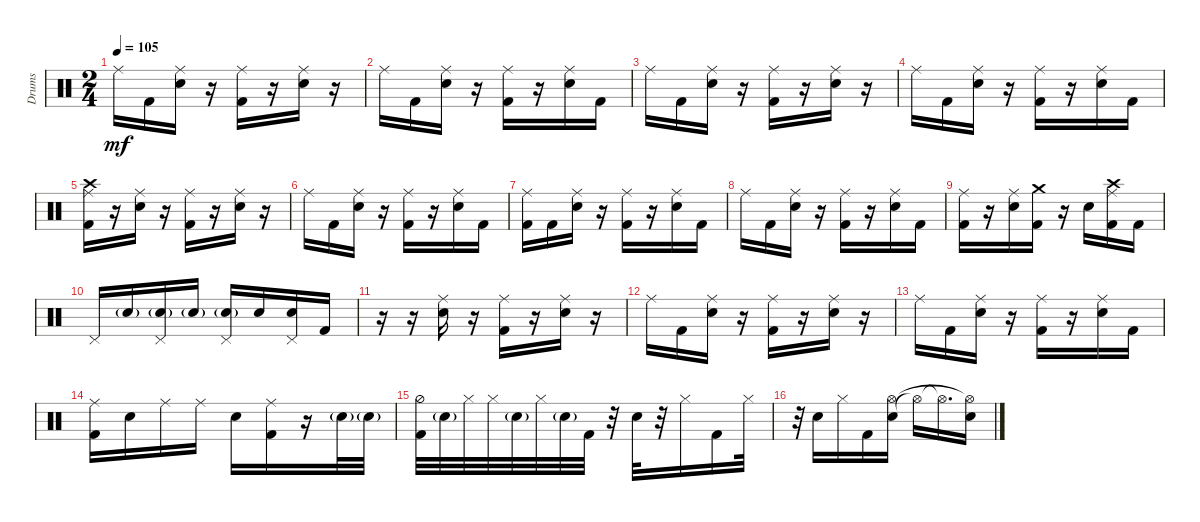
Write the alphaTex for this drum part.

\defaultSystemsLayout 4
\bracketExtendMode groupsimilarinstruments
\otherSystemsTrackNameOrientation horizontal
\track ("Godd" "Drums") {instrument percussion}
\staff {score}
\articulation defaults
\ts (2 4)
\tempo 105
\clef neutral
\ks c "Ride (middle)".16{dy mf} "Kick (hit) 2".16
("Ride (middle)" "Snare (hit) 2").16 r.16 ("Ride (middle)" "Kick (hit) 2").16 r.16 ("Ride (middle)" "Snare (hit) 2").16 r.16 |
"Ride (middle)".16 "Kick (hit) 2".16 ("Ride (middle)" "Snare (hit) 2").16 r.16 ("Ride (middle)" "Kick (hit) 2").16 r.16 ("Ride (middle)" "Snare (hit) 2").16 "Kick (hit) 2".16 |
"Ride (middle)".16 "Kick (hit) 2".16 ("Ride (middle)" "Snare (hit) 2").16 r.16 ("Ride (middle)" "Kick (hit) 2").16 r.16 ("Ride (middle)" "Snare (hit) 2").16 r.16 |
"Ride (middle)".16 "Kick (hit) 2".16 ("Ride (middle)" "Snare (hit) 2").16 r.16 ("Ride (middle)" "Kick (hit) 2").16 r.16 ("Ride (middle)" "Snare (hit) 2").16 "Kick (hit) 2".16 |
("Ride (middle)" "Crash high (hit)" "Kick (hit) 2").16 r.16 ("Ride (middle)" "Snare (hit) 2").16 r.16 ("Ride (middle)" "Kick (hit) 2").16 r.16 ("Ride (middle)" "Snare (hit) 2").16 r.16 |
"Ride (middle)".16 "Kick (hit) 2".16 ("Ride (middle)" "Snare (hit) 2").16 r.16 ("Ride (middle)" "Kick (hit) 2").16 r.16 ("Ride (middle)" "Snare (hit) 2").16 "Kick (hit) 2".16 |
("Ride (middle)" "Kick (hit) 2").16 "Kick (hit) 2".16 ("Ride (middle)" "Snare (hit) 2").16 r.16 ("Ride (middle)" "Kick (hit) 2").16 r.16 ("Ride (middle)" "Snare (hit) 2").16 "Kick (hit) 2".16 |
"Ride (middle)".16 "Kick (hit) 2".16 ("Ride (middle)" "Snare (hit) 2").16 r.16 ("Ride (middle)" "Kick (hit) 2").16 r.16 ("Ride (middle)" "Snare (hit) 2").16 "Kick (hit) 2".16 |
("Ride (middle)" "Kick (hit) 2").16 r.16 ("Ride (middle)" "Snare (hit) 2").16 ("Kick (hit) 2" "Crash medium (hit)").16 r.16 "Snare (hit) 2".16 ("Ride (middle)" "Crash high (hit)" "Kick (hit) 2").16 "Kick (hit) 2".16 |
"Pedal Hi-Hat (hit)".16 "Snare (hit) 2"{g}.16 ("Pedal Hi-Hat (hit)" "Snare (hit) 2"{g}).16 "Snare (hit) 2"{g}.16 ("Pedal Hi-Hat (hit)" "Snare (hit) 2"{g}).16 "Snare (hit) 2".16 ("Pedal Hi-Hat (hit)" "Snare (hit) 2").16 "Kick (hit) 2".16 |
r.16 r.16 ("Ride (middle)" "Snare (hit) 2").16 r.16 ("Ride (middle)" "Kick (hit) 2").16 r.16 ("Ride (middle)" "Snare (hit) 2").16 r.16 |
"Ride (middle)".16 "Kick (hit) 2".16 ("Ride (middle)" "Snare (hit) 2").16 r.16 ("Ride (middle)" "Kick (hit) 2").16 r.16 ("Ride (middle)" "Snare (hit) 2").16 r.16 |
"Ride (middle)".16 "Kick (hit) 2".16 ("Ride (middle)" "Snare (hit) 2").16 r.16 ("Ride (middle)" "Kick (hit) 2").16 r.16 ("Ride (middle)" "Snare (hit) 2").16 "Kick (hit) 2".16 |
("Kick (hit) 2" "Ride (middle)").16 "Snare (hit) 2".16 "Ride (middle)".16 "Ride (middle)".16 "Snare (hit) 2".16 ("Kick (hit) 2" "Ride (middle)").16 r.16 "Snare (hit) 2"{g}.32 "Snare (hit) 2"{g}.32 |
("Kick (hit) 2" "Hi-Hat (half)").32 "Snare (hit) 2"{g}.32 "Hi-Hat (closed)".32 "Hi-Hat (closed)".32 "Snare (hit) 2"{g}.32 "Hi-Hat (closed)".32 "Snare (hit) 2"{g}.32 "Kick (hit) 2".32 r.32 "Snare (hit) 2".32 r.32 "Hi-Hat (closed)".16 "Kick (hit) 2".16 "Hi-Hat (closed)".32 |
r.32 "Snare (hit) 2".16 "Hi-Hat (closed)".16 "Kick (hit) 2".16 ("Snare (hit) 2" "Hi-Hat (open)").16 "Hi-Hat (open)"{t}.16 "Hi-Hat (open)"{t}.16{d} ("Snare (hit) 2" "Hi-Hat (open)"{t}).16
